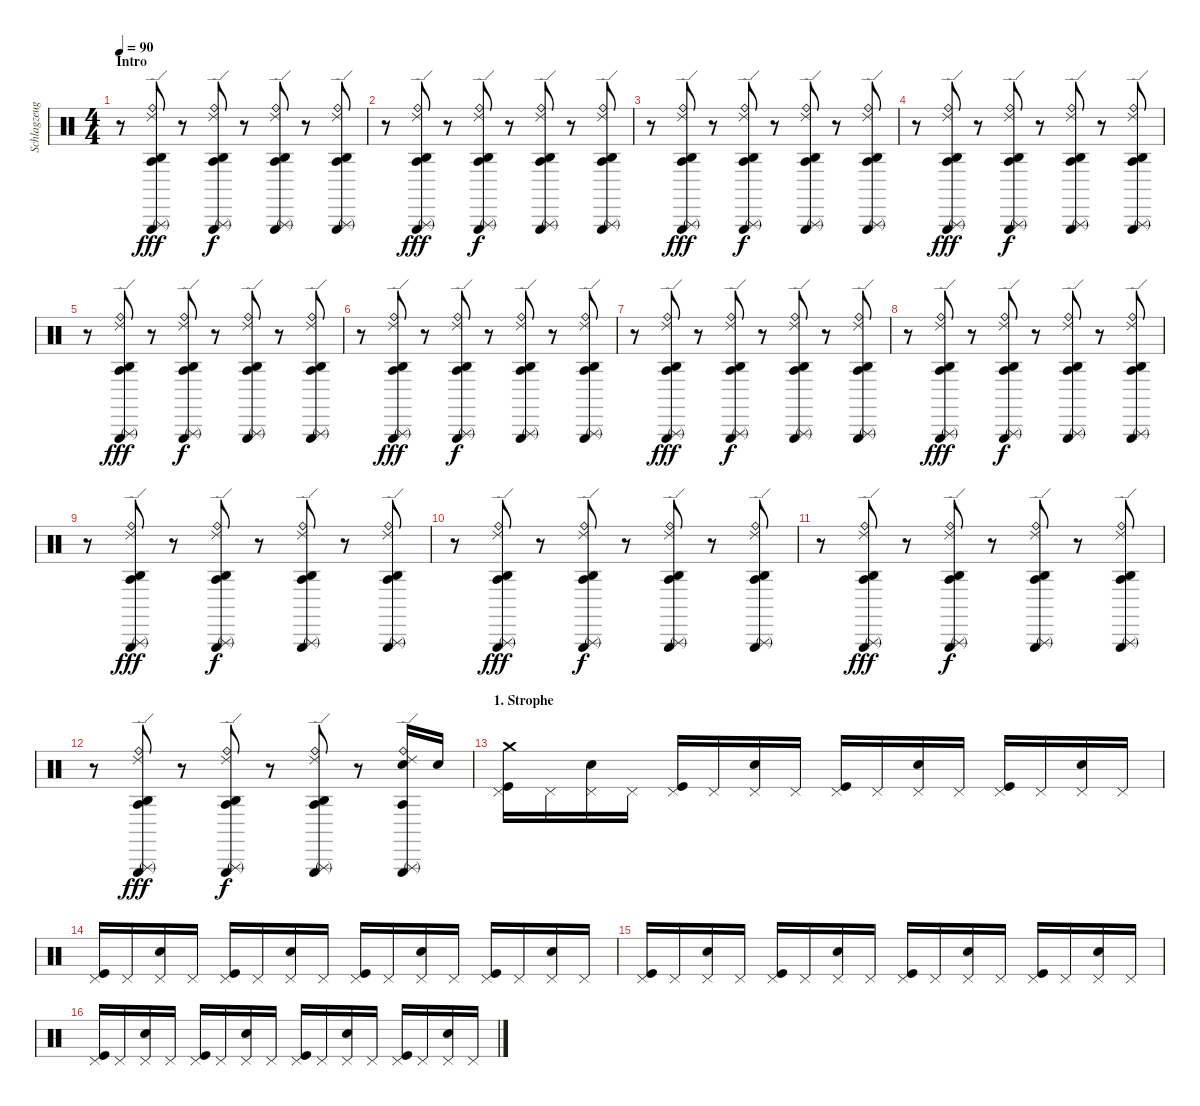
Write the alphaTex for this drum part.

\track ("Schlagzeug" "Schlagzeug") {instrument percussion}
\staff {score}
\articulation defaults
\ts (4 4)
\section ("" "Intro")
\tempo 90
\clef neutral
\ks c
r.8{dy fff} ("Triangle (hit)" "Agogo tow (hit)" "Ride (edge) 2" "Triangle (rnute)" "Ride (bell)" "Agogo high (hit)").8 r.8 ("Triangle (hit)" "Agogo tow (hit)" "Ride (edge) 2" "Triangle (rnute)" "Ride (bell)" "Agogo high (hit)").8{dy f} r.8 ("Triangle (hit)" "Agogo tow (hit)" "Ride (edge) 2" "Triangle (rnute)" "Ride (bell)" "Agogo high (hit)").8 r.8 ("Triangle (hit)" "Agogo tow (hit)" "Ride (edge) 2" "Triangle (rnute)" "Ride (bell)" "Agogo high (hit)").8 |
r.8 ("Triangle (hit)" "Agogo tow (hit)" "Ride (edge) 2" "Triangle (rnute)" "Ride (bell)" "Agogo high (hit)").8{dy fff} r.8 ("Triangle (hit)" "Agogo tow (hit)" "Ride (edge) 2" "Triangle (rnute)" "Ride (bell)" "Agogo high (hit)").8{dy f} r.8 ("Triangle (hit)" "Agogo tow (hit)" "Ride (edge) 2" "Triangle (rnute)" "Ride (bell)" "Agogo high (hit)").8 r.8 ("Triangle (hit)" "Agogo tow (hit)" "Ride (edge) 2" "Triangle (rnute)" "Ride (bell)" "Agogo high (hit)").8 |
r.8 ("Triangle (hit)" "Agogo tow (hit)" "Ride (edge) 2" "Triangle (rnute)" "Ride (bell)" "Agogo high (hit)").8{dy fff} r.8 ("Triangle (hit)" "Agogo tow (hit)" "Ride (edge) 2" "Triangle (rnute)" "Ride (bell)" "Agogo high (hit)").8{dy f} r.8 ("Triangle (hit)" "Agogo tow (hit)" "Ride (edge) 2" "Triangle (rnute)" "Ride (bell)" "Agogo high (hit)").8 r.8 ("Triangle (hit)" "Agogo tow (hit)" "Ride (edge) 2" "Triangle (rnute)" "Ride (bell)" "Agogo high (hit)").8 |
r.8 ("Triangle (hit)" "Agogo tow (hit)" "Ride (edge) 2" "Triangle (rnute)" "Ride (bell)" "Agogo high (hit)").8{dy fff} r.8 ("Triangle (hit)" "Agogo tow (hit)" "Ride (edge) 2" "Triangle (rnute)" "Ride (bell)" "Agogo high (hit)").8{dy f} r.8 ("Triangle (hit)" "Agogo tow (hit)" "Ride (edge) 2" "Triangle (rnute)" "Ride (bell)" "Agogo high (hit)").8 r.8 ("Triangle (hit)" "Agogo tow (hit)" "Ride (edge) 2" "Triangle (rnute)" "Ride (bell)" "Agogo high (hit)").8 |
r.8 ("Triangle (hit)" "Agogo tow (hit)" "Ride (edge) 2" "Triangle (rnute)" "Ride (bell)" "Agogo high (hit)").8{dy fff} r.8 ("Triangle (hit)" "Agogo tow (hit)" "Ride (edge) 2" "Triangle (rnute)" "Ride (bell)" "Agogo high (hit)").8{dy f} r.8 ("Triangle (hit)" "Agogo tow (hit)" "Ride (edge) 2" "Triangle (rnute)" "Ride (bell)" "Agogo high (hit)").8 r.8 ("Triangle (hit)" "Agogo tow (hit)" "Ride (edge) 2" "Triangle (rnute)" "Ride (bell)" "Agogo high (hit)").8 |
r.8 ("Triangle (hit)" "Agogo tow (hit)" "Ride (edge) 2" "Triangle (rnute)" "Ride (bell)" "Agogo high (hit)").8{dy fff} r.8 ("Triangle (hit)" "Agogo tow (hit)" "Ride (edge) 2" "Triangle (rnute)" "Ride (bell)" "Agogo high (hit)").8{dy f} r.8 ("Triangle (hit)" "Agogo tow (hit)" "Ride (edge) 2" "Triangle (rnute)" "Ride (bell)" "Agogo high (hit)").8 r.8 ("Triangle (hit)" "Agogo tow (hit)" "Ride (edge) 2" "Triangle (rnute)" "Ride (bell)" "Agogo high (hit)").8 |
r.8 ("Triangle (hit)" "Agogo tow (hit)" "Ride (edge) 2" "Triangle (rnute)" "Ride (bell)" "Agogo high (hit)").8{dy fff} r.8 ("Triangle (hit)" "Agogo tow (hit)" "Ride (edge) 2" "Triangle (rnute)" "Ride (bell)" "Agogo high (hit)").8{dy f} r.8 ("Triangle (hit)" "Agogo tow (hit)" "Ride (edge) 2" "Triangle (rnute)" "Ride (bell)" "Agogo high (hit)").8 r.8 ("Triangle (hit)" "Agogo tow (hit)" "Ride (edge) 2" "Triangle (rnute)" "Ride (bell)" "Agogo high (hit)").8 |
r.8 ("Triangle (hit)" "Agogo tow (hit)" "Ride (edge) 2" "Triangle (rnute)" "Ride (bell)" "Agogo high (hit)").8{dy fff} r.8 ("Triangle (hit)" "Agogo tow (hit)" "Ride (edge) 2" "Triangle (rnute)" "Ride (bell)" "Agogo high (hit)").8{dy f} r.8 ("Triangle (hit)" "Agogo tow (hit)" "Ride (edge) 2" "Triangle (rnute)" "Ride (bell)" "Agogo high (hit)").8 r.8 ("Triangle (hit)" "Agogo tow (hit)" "Ride (edge) 2" "Triangle (rnute)" "Ride (bell)" "Agogo high (hit)").8 |
r.8 ("Triangle (hit)" "Agogo tow (hit)" "Ride (edge) 2" "Triangle (rnute)" "Ride (bell)" "Agogo high (hit)").8{dy fff} r.8 ("Triangle (hit)" "Agogo tow (hit)" "Ride (edge) 2" "Triangle (rnute)" "Ride (bell)" "Agogo high (hit)").8{dy f} r.8 ("Triangle (hit)" "Agogo tow (hit)" "Ride (edge) 2" "Triangle (rnute)" "Ride (bell)" "Agogo high (hit)").8 r.8 ("Triangle (hit)" "Agogo tow (hit)" "Ride (edge) 2" "Triangle (rnute)" "Ride (bell)" "Agogo high (hit)").8 |
r.8 ("Triangle (hit)" "Agogo tow (hit)" "Ride (edge) 2" "Triangle (rnute)" "Ride (bell)" "Agogo high (hit)").8{dy fff} r.8 ("Triangle (hit)" "Agogo tow (hit)" "Ride (edge) 2" "Triangle (rnute)" "Ride (bell)" "Agogo high (hit)").8{dy f} r.8 ("Triangle (hit)" "Agogo tow (hit)" "Ride (edge) 2" "Triangle (rnute)" "Ride (bell)" "Agogo high (hit)").8 r.8 ("Triangle (hit)" "Agogo tow (hit)" "Ride (edge) 2" "Triangle (rnute)" "Ride (bell)" "Agogo high (hit)").8 |
r.8 ("Triangle (hit)" "Agogo tow (hit)" "Ride (edge) 2" "Triangle (rnute)" "Ride (bell)" "Agogo high (hit)").8{dy fff} r.8 ("Triangle (hit)" "Agogo tow (hit)" "Ride (edge) 2" "Triangle (rnute)" "Ride (bell)" "Agogo high (hit)").8{dy f} r.8 ("Triangle (hit)" "Agogo tow (hit)" "Ride (edge) 2" "Triangle (rnute)" "Ride (bell)" "Agogo high (hit)").8 r.8 ("Triangle (hit)" "Agogo tow (hit)" "Ride (edge) 2" "Triangle (rnute)" "Ride (bell)" "Agogo high (hit)").8 |
r.8 ("Triangle (hit)" "Agogo tow (hit)" "Ride (edge) 2" "Triangle (rnute)" "Ride (bell)" "Agogo high (hit)").8{dy fff} r.8 ("Triangle (hit)" "Agogo tow (hit)" "Ride (edge) 2" "Triangle (rnute)" "Ride (bell)" "Agogo high (hit)").8{dy f} r.8 ("Triangle (hit)" "Agogo tow (hit)" "Ride (edge) 2" "Triangle (rnute)" "Ride (bell)" "Agogo high (hit)").8 r.8 ("Triangle (hit)" "Agogo tow (hit)" "Ride (edge) 2" "Triangle (rnute)" "Ride (bell)" "Electric Snare (hit)").16 "Electric Snare (hit)".16 |
\section ("" "1. Strophe")
("Crash medium (hit)" "Pedal Hi-Hat (hit)" "Kick (hit)").16 "Pedal Hi-Hat (hit)".16 ("Pedal Hi-Hat (hit)" "Electric Snare (hit)").16 "Pedal Hi-Hat (hit)".16 ("Pedal Hi-Hat (hit)" "Kick (hit)").16 "Pedal Hi-Hat (hit)".16 ("Pedal Hi-Hat (hit)" "Electric Snare (hit)").16 "Pedal Hi-Hat (hit)".16 ("Pedal Hi-Hat (hit)" "Kick (hit)").16 "Pedal Hi-Hat (hit)".16 ("Pedal Hi-Hat (hit)" "Electric Snare (hit)").16 "Pedal Hi-Hat (hit)".16 ("Pedal Hi-Hat (hit)" "Kick (hit)").16 "Pedal Hi-Hat (hit)".16 ("Pedal Hi-Hat (hit)" "Electric Snare (hit)").16 "Pedal Hi-Hat (hit)".16 |
("Pedal Hi-Hat (hit)" "Kick (hit)").16 "Pedal Hi-Hat (hit)".16 ("Pedal Hi-Hat (hit)" "Electric Snare (hit)").16 "Pedal Hi-Hat (hit)".16 ("Pedal Hi-Hat (hit)" "Kick (hit)").16 "Pedal Hi-Hat (hit)".16 ("Pedal Hi-Hat (hit)" "Electric Snare (hit)").16 "Pedal Hi-Hat (hit)".16 ("Pedal Hi-Hat (hit)" "Kick (hit)").16 "Pedal Hi-Hat (hit)".16 ("Pedal Hi-Hat (hit)" "Electric Snare (hit)").16 "Pedal Hi-Hat (hit)".16 ("Pedal Hi-Hat (hit)" "Kick (hit)").16 "Pedal Hi-Hat (hit)".16 ("Pedal Hi-Hat (hit)" "Electric Snare (hit)").16 "Pedal Hi-Hat (hit)".16 |
("Pedal Hi-Hat (hit)" "Kick (hit)").16 "Pedal Hi-Hat (hit)".16 ("Pedal Hi-Hat (hit)" "Electric Snare (hit)").16 "Pedal Hi-Hat (hit)".16 ("Pedal Hi-Hat (hit)" "Kick (hit)").16 "Pedal Hi-Hat (hit)".16 ("Pedal Hi-Hat (hit)" "Electric Snare (hit)").16 "Pedal Hi-Hat (hit)".16 ("Pedal Hi-Hat (hit)" "Kick (hit)").16 "Pedal Hi-Hat (hit)".16 ("Pedal Hi-Hat (hit)" "Electric Snare (hit)").16 "Pedal Hi-Hat (hit)".16 ("Pedal Hi-Hat (hit)" "Kick (hit)").16 "Pedal Hi-Hat (hit)".16 ("Pedal Hi-Hat (hit)" "Electric Snare (hit)").16 "Pedal Hi-Hat (hit)".16 |
("Pedal Hi-Hat (hit)" "Kick (hit)").16 "Pedal Hi-Hat (hit)".16 ("Pedal Hi-Hat (hit)" "Electric Snare (hit)").16 "Pedal Hi-Hat (hit)".16 ("Pedal Hi-Hat (hit)" "Kick (hit)").16 "Pedal Hi-Hat (hit)".16 ("Pedal Hi-Hat (hit)" "Electric Snare (hit)").16 "Pedal Hi-Hat (hit)".16 ("Pedal Hi-Hat (hit)" "Kick (hit)").16 "Pedal Hi-Hat (hit)".16 ("Pedal Hi-Hat (hit)" "Electric Snare (hit)").16 "Pedal Hi-Hat (hit)".16 ("Pedal Hi-Hat (hit)" "Kick (hit)").16 "Pedal Hi-Hat (hit)".16 ("Pedal Hi-Hat (hit)" "Electric Snare (hit)").16 "Pedal Hi-Hat (hit)".16
